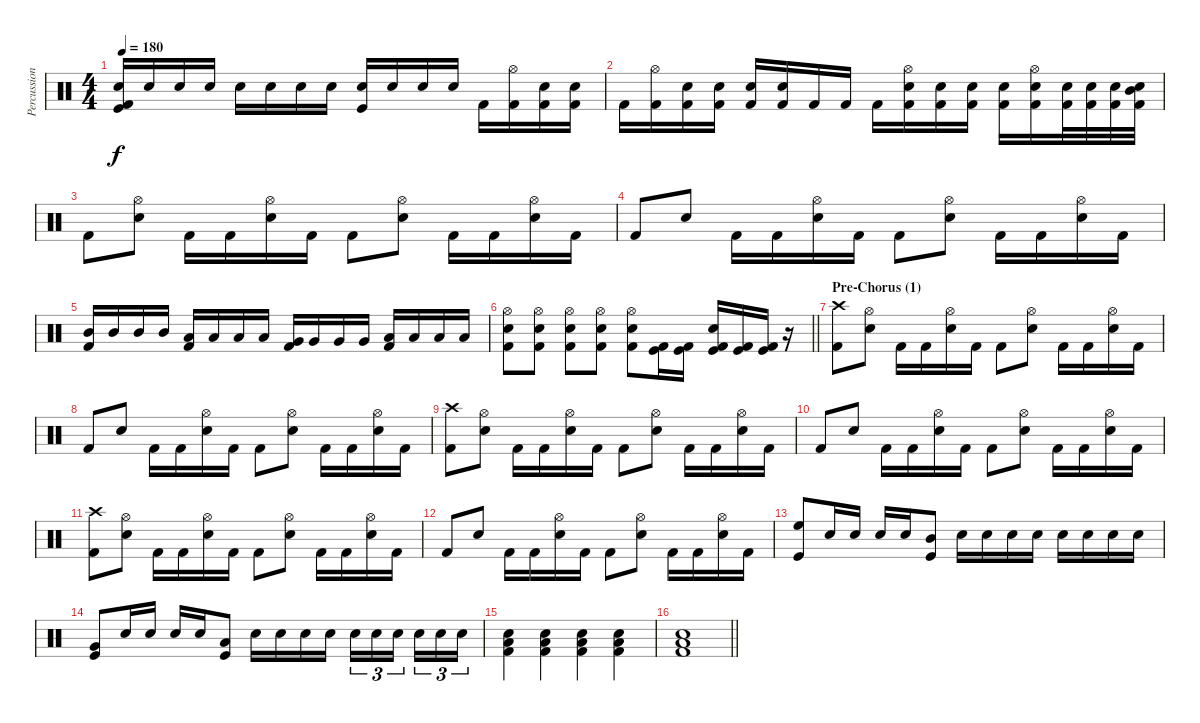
\track ("Percussions" "Percussion") {instrument percussion}
\staff {score}
\articulation defaults
\ts (4 4)
\tempo 180
\clef neutral
\ks c
("Snare (hit) 2" "Kick (hit) 2" "Kick (hit)").16{dy f} "Electric Snare (hit)".16 "Electric Snare (hit)".16 "Electric Snare (hit)".16 "Electric Snare (hit)".16 "Electric Snare (hit)".16 "Electric Snare (hit)".16 "Electric Snare (hit)".16 ("Electric Snare (hit)" "Kick (hit)").16 "Electric Snare (hit)".16 "Electric Snare (hit)".16 "Electric Snare (hit)".16 "Kick (hit) 2".16 ("Hi-Hat (open)" "Kick (hit) 2").16 ("Snare (hit) 2" "Kick (hit) 2").16 ("Snare (hit) 2" "Kick (hit) 2").16 |
"Kick (hit) 2".16 ("Hi-Hat (open)" "Kick (hit) 2").16 ("Snare (hit) 2" "Kick (hit) 2").16 ("Snare (hit) 2" "Kick (hit) 2").16 ("Snare (hit) 2" "Kick (hit) 2").16 ("Snare (hit) 2" "Kick (hit) 2").16 "Kick (hit) 2".16 "Kick (hit) 2".16 "Kick (hit) 2".16 ("Hi-Hat (open)" "Snare (hit) 2" "Kick (hit) 2").16 ("Snare (hit) 2" "Kick (hit) 2").16 ("Snare (hit) 2" "Kick (hit) 2").16 ("Snare (hit) 2" "Kick (hit) 2").16 ("Hi-Hat (open)" "Snare (hit) 2" "Kick (hit) 2").16 ("Snare (hit) 2" "Kick (hit) 2").32 ("Snare (hit) 2" "Kick (hit) 2").32 ("Snare (hit) 2" "Kick (hit) 2").32 ("Mid Tom (hit)" "Snare (hit) 2" "Kick (hit) 2").32 |
"Kick (hit) 2".8 ("Hi-Hat (open)" "Snare (hit) 2").8 "Kick (hit) 2".16 "Kick (hit) 2".16 ("Hi-Hat (open)" "Snare (hit) 2").16 "Kick (hit) 2".16 "Kick (hit) 2".8 ("Hi-Hat (open)" "Snare (hit) 2").8 "Kick (hit) 2".16 "Kick (hit) 2".16 ("Hi-Hat (open)" "Snare (hit) 2").16 "Kick (hit) 2".16 |
"Kick (hit) 2".8 "Snare (hit) 2".8 "Kick (hit) 2".16 "Kick (hit) 2".16 ("Hi-Hat (open)" "Snare (hit) 2").16 "Kick (hit) 2".16 "Kick (hit) 2".8 ("Hi-Hat (open)" "Snare (hit) 2").8 "Kick (hit) 2".16 "Kick (hit) 2".16 ("Hi-Hat (open)" "Snare (hit) 2").16 "Kick (hit) 2".16 |
("Mid Tom (hit)" "Kick (hit) 2").16 "Mid Tom (hit)".16 "Mid Tom (hit)".16 "Mid Tom (hit)".16 ("Low Tom (hit)" "Kick (hit) 2").16 "Low Tom (hit)".16 "Low Tom (hit)".16 "Low Tom (hit)".16 ("Very Low Tom (hit)" "Kick (hit) 2").16 "Very Low Tom (hit)".16 "Very Low Tom (hit)".16 "Very Low Tom (hit)".16 ("Low Floor Tom (hit)" "Kick (hit) 2").16 "Low Floor Tom (hit)".16 "Low Floor Tom (hit)".16 "Low Floor Tom (hit)".16 |
\barLineRight lightlight
("Hi-Hat (open)" "Snare (hit) 2" "Kick (hit) 2").8 ("Hi-Hat (open)" "Snare (hit) 2" "Kick (hit) 2").8 ("Hi-Hat (open)" "Snare (hit) 2" "Kick (hit) 2").8 ("Hi-Hat (open)" "Snare (hit) 2" "Kick (hit) 2").8 ("Hi-Hat (open)" "Snare (hit) 2" "Kick (hit) 2").8 ("Kick (hit)" "Kick (hit) 2").16 ("Kick (hit)" "Kick (hit) 2").16 ("Snare (hit) 2" "Kick (hit)" "Kick (hit) 2").16 ("Kick (hit)" "Kick (hit) 2").16 ("Kick (hit)" "Kick (hit) 2").16 r.16 |
\section ("" "Pre-Chorus (1)")
("Crash high (hit)" "Kick (hit) 2").8 ("Hi-Hat (open)" "Snare (hit) 2").8 "Kick (hit) 2".16 "Kick (hit) 2".16 ("Hi-Hat (open)" "Snare (hit) 2").16 "Kick (hit) 2".16 "Kick (hit) 2".8 ("Hi-Hat (open)" "Snare (hit) 2").8 "Kick (hit) 2".16 "Kick (hit) 2".16 ("Hi-Hat (open)" "Snare (hit) 2").16 "Kick (hit) 2".16 |
"Kick (hit) 2".8 "Snare (hit) 2".8 "Kick (hit) 2".16 "Kick (hit) 2".16 ("Hi-Hat (open)" "Snare (hit) 2").16 "Kick (hit) 2".16 "Kick (hit) 2".8 ("Hi-Hat (open)" "Snare (hit) 2").8 "Kick (hit) 2".16 "Kick (hit) 2".16 ("Hi-Hat (open)" "Snare (hit) 2").16 "Kick (hit) 2".16 |
("Crash high (hit)" "Kick (hit) 2").8 ("Hi-Hat (open)" "Snare (hit) 2").8 "Kick (hit) 2".16 "Kick (hit) 2".16 ("Hi-Hat (open)" "Snare (hit) 2").16 "Kick (hit) 2".16 "Kick (hit) 2".8 ("Hi-Hat (open)" "Snare (hit) 2").8 "Kick (hit) 2".16 "Kick (hit) 2".16 ("Hi-Hat (open)" "Snare (hit) 2").16 "Kick (hit) 2".16 |
"Kick (hit) 2".8 "Snare (hit) 2".8 "Kick (hit) 2".16 "Kick (hit) 2".16 ("Hi-Hat (open)" "Snare (hit) 2").16 "Kick (hit) 2".16 "Kick (hit) 2".8 ("Hi-Hat (open)" "Snare (hit) 2").8 "Kick (hit) 2".16 "Kick (hit) 2".16 ("Hi-Hat (open)" "Snare (hit) 2").16 "Kick (hit) 2".16 |
("Crash high (hit)" "Kick (hit) 2").8 ("Hi-Hat (open)" "Snare (hit) 2").8 "Kick (hit) 2".16 "Kick (hit) 2".16 ("Hi-Hat (open)" "Snare (hit) 2").16 "Kick (hit) 2".16 "Kick (hit) 2".8 ("Hi-Hat (open)" "Snare (hit) 2").8 "Kick (hit) 2".16 "Kick (hit) 2".16 ("Hi-Hat (open)" "Snare (hit) 2").16 "Kick (hit) 2".16 |
"Kick (hit) 2".8 "Snare (hit) 2".8 "Kick (hit) 2".16 "Kick (hit) 2".16 ("Hi-Hat (open)" "Snare (hit) 2").16 "Kick (hit) 2".16 "Kick (hit) 2".8 ("Hi-Hat (open)" "Snare (hit) 2").8 "Kick (hit) 2".16 "Kick (hit) 2".16 ("Hi-Hat (open)" "Snare (hit) 2").16 "Kick (hit) 2".16 |
("High Floor Tom (hit)" "Kick (hit)").8 "Snare (hit) 2".16 "Snare (hit) 2".16 "Snare (hit) 2".16 "Snare (hit) 2".16 ("Mid Tom (hit)" "Kick (hit)").8 "Snare (hit) 2".16 "Snare (hit) 2".16 "Snare (hit) 2".16 "Snare (hit) 2".16 "Snare (hit) 2".16 "Snare (hit) 2".16 "Snare (hit) 2".16 "Snare (hit) 2".16 |
("Very Low Tom (hit)" "Kick (hit)").8 "Snare (hit) 2".16 "Snare (hit) 2".16 "Snare (hit) 2".16 "Snare (hit) 2".16 ("Low Floor Tom (hit)" "Kick (hit)").8 "Snare (hit) 2".16 "Snare (hit) 2".16 "Snare (hit) 2".16 "Snare (hit) 2".16 "Snare (hit) 2".16{tu (3 2)} "Snare (hit) 2".16{tu (3 2)} "Snare (hit) 2".16{tu (3 2) beam splitsecondary} "Snare (hit) 2".16{tu (3 2)} "Snare (hit) 2".16{tu (3 2)} "Snare (hit) 2".16{tu (3 2)} |
("Snare (hit) 2" "Low Floor Tom (hit)" "Kick (hit) 2").4 ("Snare (hit) 2" "Low Floor Tom (hit)" "Kick (hit) 2").4 ("Snare (hit) 2" "Low Floor Tom (hit)" "Kick (hit) 2").4 ("Snare (hit) 2" "Low Floor Tom (hit)" "Kick (hit) 2").4 |
\barLineRight lightlight
("Snare (hit) 2" "Low Floor Tom (hit)" "Kick (hit) 2").1
